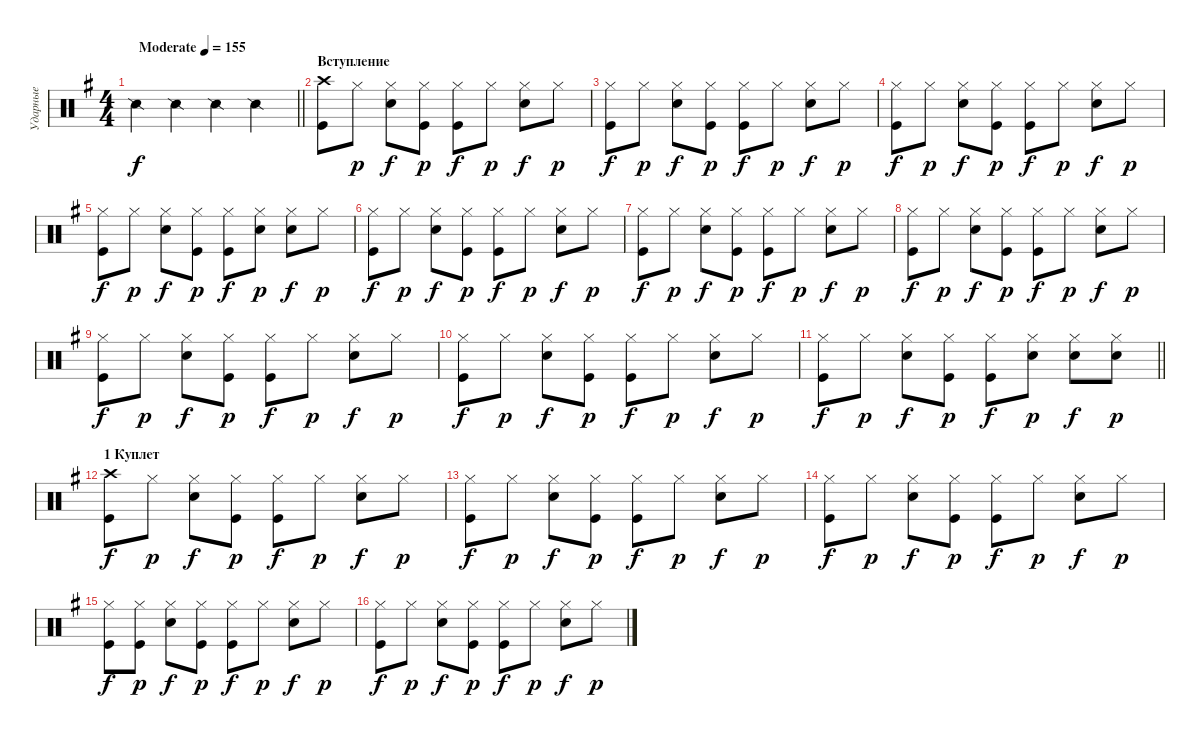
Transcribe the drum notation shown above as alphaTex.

\track ("Ударные" "Ударные") {instrument percussion}
\staff {score}
\articulation defaults
\ts (4 4)
\tempo (155 "Moderate")
\clef neutral
\barLineRight lightlight
\ks eminor "Snare (side stick) 2".4{dy f} "Snare (side stick) 2".4 "Snare (side stick) 2".4 "Snare (side stick) 2".4
|
\section ("" "Вступление")
("Crash high (hit)" "Kick (hit)").8 "Hi-Hat (closed)".8{dy p} ("Hi-Hat (closed)" "Snare (hit) 2").8{dy f} ("Hi-Hat (closed)" "Kick (hit)").8{dy p} ("Hi-Hat (closed)" "Kick (hit)").8{dy f} "Hi-Hat (closed)".8{dy p} ("Hi-Hat (closed)" "Snare (hit) 2").8{dy f} "Hi-Hat (closed)".8{dy p} |
("Hi-Hat (closed)" "Kick (hit)").8{dy f} "Hi-Hat (closed)".8{dy p} ("Hi-Hat (closed)" "Snare (hit) 2").8{dy f} ("Hi-Hat (closed)" "Kick (hit)").8{dy p} ("Hi-Hat (closed)" "Kick (hit)").8{dy f} "Hi-Hat (closed)".8{dy p} ("Hi-Hat (closed)" "Snare (hit) 2").8{dy f} "Hi-Hat (closed)".8{dy p} |
("Hi-Hat (closed)" "Kick (hit)").8{dy f} "Hi-Hat (closed)".8{dy p} ("Hi-Hat (closed)" "Snare (hit) 2").8{dy f} ("Hi-Hat (closed)" "Kick (hit)").8{dy p} ("Hi-Hat (closed)" "Kick (hit)").8{dy f} "Hi-Hat (closed)".8{dy p} ("Hi-Hat (closed)" "Snare (hit) 2").8{dy f} "Hi-Hat (closed)".8{dy p} |
("Hi-Hat (closed)" "Kick (hit)").8{dy f} "Hi-Hat (closed)".8{dy p} ("Hi-Hat (closed)" "Snare (hit) 2").8{dy f} ("Hi-Hat (closed)" "Kick (hit)").8{dy p} ("Hi-Hat (closed)" "Kick (hit)").8{dy f} ("Hi-Hat (closed)" "Snare (hit) 2").8{dy p} ("Hi-Hat (closed)" "Snare (hit) 2").8{dy f} "Hi-Hat (closed)".8{dy p} |
("Hi-Hat (closed)" "Kick (hit)").8{dy f} "Hi-Hat (closed)".8{dy p} ("Hi-Hat (closed)" "Snare (hit) 2").8{dy f} ("Hi-Hat (closed)" "Kick (hit)").8{dy p} ("Hi-Hat (closed)" "Kick (hit)").8{dy f} "Hi-Hat (closed)".8{dy p} ("Hi-Hat (closed)" "Snare (hit) 2").8{dy f} "Hi-Hat (closed)".8{dy p} |
("Hi-Hat (closed)" "Kick (hit)").8{dy f} "Hi-Hat (closed)".8{dy p} ("Hi-Hat (closed)" "Snare (hit) 2").8{dy f} ("Hi-Hat (closed)" "Kick (hit)").8{dy p} ("Hi-Hat (closed)" "Kick (hit)").8{dy f} "Hi-Hat (closed)".8{dy p} ("Hi-Hat (closed)" "Snare (hit) 2").8{dy f} "Hi-Hat (closed)".8{dy p} |
("Hi-Hat (closed)" "Kick (hit)").8{dy f} "Hi-Hat (closed)".8{dy p} ("Hi-Hat (closed)" "Snare (hit) 2").8{dy f} ("Hi-Hat (closed)" "Kick (hit)").8{dy p} ("Hi-Hat (closed)" "Kick (hit)").8{dy f} "Hi-Hat (closed)".8{dy p} ("Hi-Hat (closed)" "Snare (hit) 2").8{dy f} "Hi-Hat (closed)".8{dy p} |
("Hi-Hat (closed)" "Kick (hit)").8{dy f} "Hi-Hat (closed)".8{dy p} ("Hi-Hat (closed)" "Snare (hit) 2").8{dy f} ("Hi-Hat (closed)" "Kick (hit)").8{dy p} ("Hi-Hat (closed)" "Kick (hit)").8{dy f} "Hi-Hat (closed)".8{dy p} ("Hi-Hat (closed)" "Snare (hit) 2").8{dy f} "Hi-Hat (closed)".8{dy p} |
("Hi-Hat (closed)" "Kick (hit)").8{dy f} "Hi-Hat (closed)".8{dy p} ("Hi-Hat (closed)" "Snare (hit) 2").8{dy f} ("Hi-Hat (closed)" "Kick (hit)").8{dy p} ("Hi-Hat (closed)" "Kick (hit)").8{dy f} "Hi-Hat (closed)".8{dy p} ("Hi-Hat (closed)" "Snare (hit) 2").8{dy f} "Hi-Hat (closed)".8{dy p} |
\barLineRight lightlight
("Hi-Hat (closed)" "Kick (hit)").8{dy f} "Hi-Hat (closed)".8{dy p} ("Hi-Hat (closed)" "Snare (hit) 2").8{dy f} ("Hi-Hat (closed)" "Kick (hit)").8{dy p} ("Hi-Hat (closed)" "Kick (hit)").8{dy f} ("Hi-Hat (closed)" "Snare (hit) 2").8{dy p} ("Hi-Hat (closed)" "Snare (hit) 2").8{dy f} ("Hi-Hat (closed)" "Snare (hit) 2").8{dy p} |
\section ("" "1 Куплет")
("Crash high (hit)" "Kick (hit)").8{dy f} "Hi-Hat (closed)".8{dy p} ("Hi-Hat (closed)" "Snare (hit) 2").8{dy f} ("Hi-Hat (closed)" "Kick (hit)").8{dy p} ("Hi-Hat (closed)" "Kick (hit)").8{dy f} "Hi-Hat (closed)".8{dy p} ("Hi-Hat (closed)" "Snare (hit) 2").8{dy f} "Hi-Hat (closed)".8{dy p} |
("Hi-Hat (closed)" "Kick (hit)").8{dy f} "Hi-Hat (closed)".8{dy p} ("Hi-Hat (closed)" "Snare (hit) 2").8{dy f} ("Hi-Hat (closed)" "Kick (hit)").8{dy p} ("Hi-Hat (closed)" "Kick (hit)").8{dy f} "Hi-Hat (closed)".8{dy p} ("Hi-Hat (closed)" "Snare (hit) 2").8{dy f} "Hi-Hat (closed)".8{dy p} |
("Hi-Hat (closed)" "Kick (hit)").8{dy f} "Hi-Hat (closed)".8{dy p} ("Hi-Hat (closed)" "Snare (hit) 2").8{dy f} ("Hi-Hat (closed)" "Kick (hit)").8{dy p} ("Hi-Hat (closed)" "Kick (hit)").8{dy f} "Hi-Hat (closed)".8{dy p} ("Hi-Hat (closed)" "Snare (hit) 2").8{dy f} "Hi-Hat (closed)".8{dy p} |
("Hi-Hat (closed)" "Kick (hit)").8{dy f} ("Hi-Hat (closed)" "Kick (hit)").8{dy p} ("Hi-Hat (closed)" "Snare (hit) 2").8{dy f} ("Hi-Hat (closed)" "Kick (hit)").8{dy p} ("Hi-Hat (closed)" "Kick (hit)").8{dy f} "Hi-Hat (closed)".8{dy p} ("Hi-Hat (closed)" "Snare (hit) 2").8{dy f} "Hi-Hat (closed)".8{dy p} |
("Hi-Hat (closed)" "Kick (hit)").8{dy f} "Hi-Hat (closed)".8{dy p} ("Hi-Hat (closed)" "Snare (hit) 2").8{dy f} ("Hi-Hat (closed)" "Kick (hit)").8{dy p} ("Hi-Hat (closed)" "Kick (hit)").8{dy f} "Hi-Hat (closed)".8{dy p} ("Hi-Hat (closed)" "Snare (hit) 2").8{dy f} "Hi-Hat (closed)".8{dy p}
